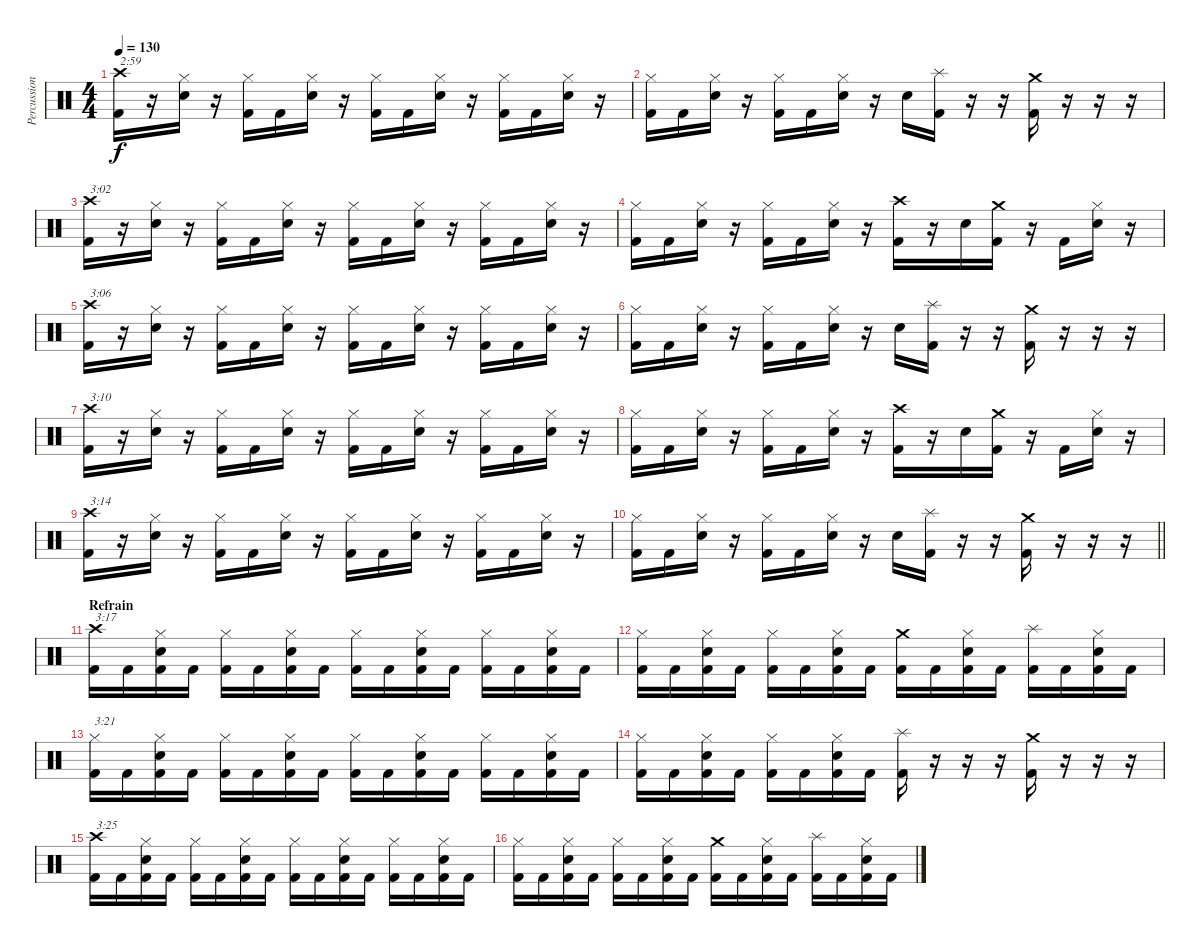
\track ("Percussion" "Percussion") {instrument percussion}
\staff {score}
\articulation defaults
\ts (4 4)
\tempo 130
\clef neutral
\ks c
("Crash high (hit)" "Kick (hit) 2").16{txt "2:59" dy f} r.16 ("Hi-Hat (closed)" "Electric Snare (hit)").16 r.16 ("Hi-Hat (closed)" "Kick (hit) 2").16 "Kick (hit) 2".16 ("Hi-Hat (closed)" "Electric Snare (hit)").16 r.16 ("Hi-Hat (closed)" "Kick (hit) 2").16 "Kick (hit) 2".16 ("Hi-Hat (closed)" "Electric Snare (hit)").16 r.16 ("Hi-Hat (closed)" "Kick (hit) 2").16 "Kick (hit) 2".16 ("Hi-Hat (closed)" "Electric Snare (hit)").16 r.16 |
("Hi-Hat (closed)" "Kick (hit) 2").16 "Kick (hit) 2".16 ("Hi-Hat (closed)" "Electric Snare (hit)").16 r.16 ("Hi-Hat (closed)" "Kick (hit) 2").16 "Kick (hit) 2".16 ("Hi-Hat (closed)" "Electric Snare (hit)").16 r.16 "Electric Snare (hit)".16 ("Splash (hit)" "Kick (hit) 2").16 r.16 r.16 ("Crash medium (hit)" "Kick (hit) 2").16 r.16 r.16 r.16 |
("Crash high (hit)" "Kick (hit) 2").16{txt "3:02"} r.16 ("Hi-Hat (closed)" "Electric Snare (hit)").16 r.16 ("Hi-Hat (closed)" "Kick (hit) 2").16 "Kick (hit) 2".16 ("Hi-Hat (closed)" "Electric Snare (hit)").16 r.16 ("Hi-Hat (closed)" "Kick (hit) 2").16 "Kick (hit) 2".16 ("Hi-Hat (closed)" "Electric Snare (hit)").16 r.16 ("Hi-Hat (closed)" "Kick (hit) 2").16 "Kick (hit) 2".16 ("Hi-Hat (closed)" "Electric Snare (hit)").16 r.16 |
("Hi-Hat (closed)" "Kick (hit) 2").16 "Kick (hit) 2".16 ("Hi-Hat (closed)" "Electric Snare (hit)").16 r.16 ("Hi-Hat (closed)" "Kick (hit) 2").16 "Kick (hit) 2".16 ("Hi-Hat (closed)" "Electric Snare (hit)").16 r.16 ("Crash high (hit)" "Kick (hit) 2").16 r.16 "Electric Snare (hit)".16 ("Crash medium (hit)" "Kick (hit) 2").16 r.16 "Kick (hit) 2".16 ("Hi-Hat (closed)" "Electric Snare (hit)").16 r.16 |
("Crash high (hit)" "Kick (hit) 2").16{txt "3:06"} r.16 ("Hi-Hat (closed)" "Electric Snare (hit)").16 r.16 ("Hi-Hat (closed)" "Kick (hit) 2").16 "Kick (hit) 2".16 ("Hi-Hat (closed)" "Electric Snare (hit)").16 r.16 ("Hi-Hat (closed)" "Kick (hit) 2").16 "Kick (hit) 2".16 ("Hi-Hat (closed)" "Electric Snare (hit)").16 r.16 ("Hi-Hat (closed)" "Kick (hit) 2").16 "Kick (hit) 2".16 ("Hi-Hat (closed)" "Electric Snare (hit)").16 r.16 |
("Hi-Hat (closed)" "Kick (hit) 2").16 "Kick (hit) 2".16 ("Hi-Hat (closed)" "Electric Snare (hit)").16 r.16 ("Hi-Hat (closed)" "Kick (hit) 2").16 "Kick (hit) 2".16 ("Hi-Hat (closed)" "Electric Snare (hit)").16 r.16 "Electric Snare (hit)".16 ("Splash (hit)" "Kick (hit) 2").16 r.16 r.16 ("Crash medium (hit)" "Kick (hit) 2").16 r.16 r.16 r.16 |
("Crash high (hit)" "Kick (hit) 2").16{txt "3:10"} r.16 ("Hi-Hat (closed)" "Electric Snare (hit)").16 r.16 ("Hi-Hat (closed)" "Kick (hit) 2").16 "Kick (hit) 2".16 ("Hi-Hat (closed)" "Electric Snare (hit)").16 r.16 ("Hi-Hat (closed)" "Kick (hit) 2").16 "Kick (hit) 2".16 ("Hi-Hat (closed)" "Electric Snare (hit)").16 r.16 ("Hi-Hat (closed)" "Kick (hit) 2").16 "Kick (hit) 2".16 ("Hi-Hat (closed)" "Electric Snare (hit)").16 r.16 |
("Hi-Hat (closed)" "Kick (hit) 2").16 "Kick (hit) 2".16 ("Hi-Hat (closed)" "Electric Snare (hit)").16 r.16 ("Hi-Hat (closed)" "Kick (hit) 2").16 "Kick (hit) 2".16 ("Hi-Hat (closed)" "Electric Snare (hit)").16 r.16 ("Crash high (hit)" "Kick (hit) 2").16 r.16 "Electric Snare (hit)".16 ("Crash medium (hit)" "Kick (hit) 2").16 r.16 "Kick (hit) 2".16 ("Hi-Hat (closed)" "Electric Snare (hit)").16 r.16 |
("Crash high (hit)" "Kick (hit) 2").16{txt "3:14"} r.16 ("Hi-Hat (closed)" "Electric Snare (hit)").16 r.16 ("Hi-Hat (closed)" "Kick (hit) 2").16 "Kick (hit) 2".16 ("Hi-Hat (closed)" "Electric Snare (hit)").16 r.16 ("Hi-Hat (closed)" "Kick (hit) 2").16 "Kick (hit) 2".16 ("Hi-Hat (closed)" "Electric Snare (hit)").16 r.16 ("Hi-Hat (closed)" "Kick (hit) 2").16 "Kick (hit) 2".16 ("Hi-Hat (closed)" "Electric Snare (hit)").16 r.16 |
\barLineRight lightlight
("Hi-Hat (closed)" "Kick (hit) 2").16 "Kick (hit) 2".16 ("Hi-Hat (closed)" "Electric Snare (hit)").16 r.16 ("Hi-Hat (closed)" "Kick (hit) 2").16 "Kick (hit) 2".16 ("Hi-Hat (closed)" "Electric Snare (hit)").16 r.16 "Electric Snare (hit)".16 ("Splash (hit)" "Kick (hit) 2").16 r.16 r.16 ("Crash medium (hit)" "Kick (hit) 2").16 r.16 r.16 r.16 |
\section ("" "Refrain")
("Crash high (hit)" "Kick (hit) 2").16{txt "3:17"} "Kick (hit) 2".16 ("Hi-Hat (closed)" "Electric Snare (hit)" "Kick (hit) 2").16 "Kick (hit) 2".16 ("Hi-Hat (closed)" "Kick (hit) 2").16 "Kick (hit) 2".16 ("Hi-Hat (closed)" "Electric Snare (hit)" "Kick (hit) 2").16 "Kick (hit) 2".16 ("Hi-Hat (closed)" "Kick (hit) 2").16 "Kick (hit) 2".16 ("Hi-Hat (closed)" "Electric Snare (hit)" "Kick (hit) 2").16 "Kick (hit) 2".16 ("Hi-Hat (closed)" "Kick (hit) 2").16 "Kick (hit) 2".16 ("Hi-Hat (closed)" "Electric Snare (hit)" "Kick (hit) 2").16 "Kick (hit) 2".16 |
("Hi-Hat (closed)" "Kick (hit) 2").16 "Kick (hit) 2".16 ("Hi-Hat (closed)" "Electric Snare (hit)" "Kick (hit) 2").16 "Kick (hit) 2".16 ("Hi-Hat (closed)" "Kick (hit) 2").16 "Kick (hit) 2".16 ("Hi-Hat (closed)" "Electric Snare (hit)" "Kick (hit) 2").16 "Kick (hit) 2".16 ("Crash medium (hit)" "Kick (hit) 2").16 "Kick (hit) 2".16 ("Hi-Hat (closed)" "Electric Snare (hit)" "Kick (hit) 2").16 "Kick (hit) 2".16 ("Splash (hit)" "Kick (hit) 2").16 "Kick (hit) 2".16 ("Hi-Hat (closed)" "Electric Snare (hit)" "Kick (hit) 2").16 "Kick (hit) 2".16 |
("Hi-Hat (closed)" "Kick (hit) 2").16{txt "3:21"} "Kick (hit) 2".16 ("Hi-Hat (closed)" "Electric Snare (hit)" "Kick (hit) 2").16 "Kick (hit) 2".16 ("Hi-Hat (closed)" "Kick (hit) 2").16 "Kick (hit) 2".16 ("Hi-Hat (closed)" "Electric Snare (hit)" "Kick (hit) 2").16 "Kick (hit) 2".16 ("Hi-Hat (closed)" "Kick (hit) 2").16 "Kick (hit) 2".16 ("Hi-Hat (closed)" "Electric Snare (hit)" "Kick (hit) 2").16 "Kick (hit) 2".16 ("Hi-Hat (closed)" "Kick (hit) 2").16 "Kick (hit) 2".16 ("Hi-Hat (closed)" "Electric Snare (hit)" "Kick (hit) 2").16 "Kick (hit) 2".16 |
("Hi-Hat (closed)" "Kick (hit) 2").16 "Kick (hit) 2".16 ("Hi-Hat (closed)" "Electric Snare (hit)" "Kick (hit) 2").16 "Kick (hit) 2".16 ("Hi-Hat (closed)" "Kick (hit) 2").16 "Kick (hit) 2".16 ("Hi-Hat (closed)" "Electric Snare (hit)" "Kick (hit) 2").16 "Kick (hit) 2".16 ("Splash (hit)" "Kick (hit) 2").16 r.16 r.16 r.16 ("Crash medium (hit)" "Kick (hit) 2").16 r.16 r.16 r.16 |
("Crash high (hit)" "Kick (hit) 2").16{txt "3:25"} "Kick (hit) 2".16 ("Hi-Hat (closed)" "Electric Snare (hit)" "Kick (hit) 2").16 "Kick (hit) 2".16 ("Hi-Hat (closed)" "Kick (hit) 2").16 "Kick (hit) 2".16 ("Hi-Hat (closed)" "Electric Snare (hit)" "Kick (hit) 2").16 "Kick (hit) 2".16 ("Hi-Hat (closed)" "Kick (hit) 2").16 "Kick (hit) 2".16 ("Hi-Hat (closed)" "Electric Snare (hit)" "Kick (hit) 2").16 "Kick (hit) 2".16 ("Hi-Hat (closed)" "Kick (hit) 2").16 "Kick (hit) 2".16 ("Hi-Hat (closed)" "Electric Snare (hit)" "Kick (hit) 2").16 "Kick (hit) 2".16 |
("Hi-Hat (closed)" "Kick (hit) 2").16 "Kick (hit) 2".16 ("Hi-Hat (closed)" "Electric Snare (hit)" "Kick (hit) 2").16 "Kick (hit) 2".16 ("Hi-Hat (closed)" "Kick (hit) 2").16 "Kick (hit) 2".16 ("Hi-Hat (closed)" "Electric Snare (hit)" "Kick (hit) 2").16 "Kick (hit) 2".16 ("Crash medium (hit)" "Kick (hit) 2").16 "Kick (hit) 2".16 ("Hi-Hat (closed)" "Electric Snare (hit)" "Kick (hit) 2").16 "Kick (hit) 2".16 ("Splash (hit)" "Kick (hit) 2").16 "Kick (hit) 2".16 ("Hi-Hat (closed)" "Electric Snare (hit)" "Kick (hit) 2").16 "Kick (hit) 2".16
